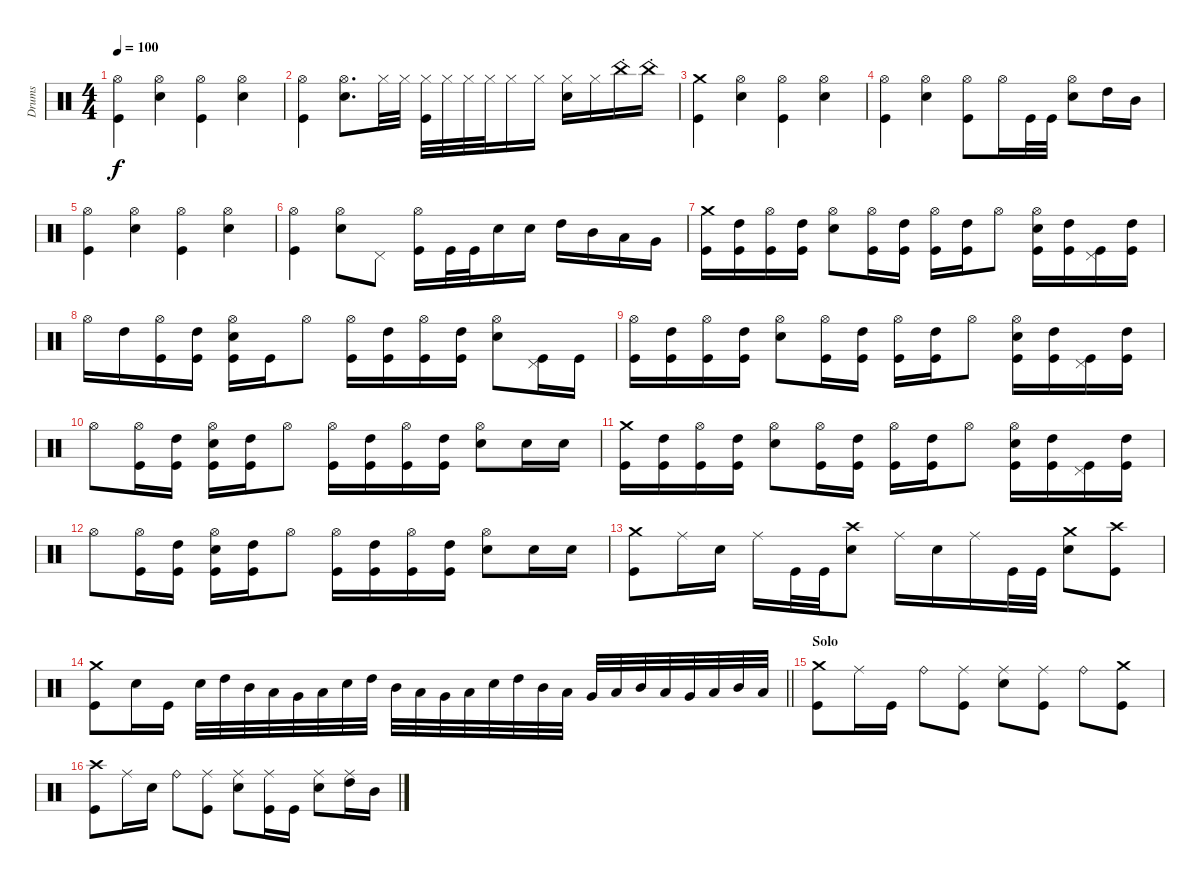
\track ("Drums" "Drums") {instrument percussion}
\staff {score}
\articulation defaults
\ts (4 4)
\tempo 100
\clef neutral
\ks c
("Hi-Hat (open)" "Kick (hit)").4{dy f} ("Hi-Hat (open)" "Electric Snare (hit)").4 ("Hi-Hat (open)" "Kick (hit)").4 ("Hi-Hat (open)" "Electric Snare (hit)").4 |
("Hi-Hat (open)" "Kick (hit)").4 ("Hi-Hat (open)" "Electric Snare (hit)").8{d} "Hi-Hat (closed)".32 "Hi-Hat (closed)".32 ("Hi-Hat (closed)" "Kick (hit)").32 "Hi-Hat (closed)".32 "Hi-Hat (closed)".32 "Hi-Hat (closed)".32 "Hi-Hat (closed)".16 "Hi-Hat (closed)".16 ("Hi-Hat (closed)" "Electric Snare (hit)").16 "Hi-Hat (closed)".16 "China (hit)"{st}.16 "China (hit)"{st}.16 |
("Crash medium (hit)" "Kick (hit)").4 ("Hi-Hat (open)" "Electric Snare (hit)").4 ("Hi-Hat (open)" "Kick (hit)").4 ("Hi-Hat (open)" "Electric Snare (hit)").4 |
("Hi-Hat (open)" "Kick (hit)").4 ("Hi-Hat (open)" "Electric Snare (hit)").4 ("Hi-Hat (open)" "Kick (hit)").8 "Hi-Hat (open)".16 "Kick (hit)".32 "Kick (hit)".32 ("Hi-Hat (open)" "Electric Snare (hit)").8 "High Tom (hit)".16 "Mid Tom (hit)".16 |
("Hi-Hat (open)" "Kick (hit)").4 ("Hi-Hat (open)" "Electric Snare (hit)").4 ("Hi-Hat (open)" "Kick (hit)").4 ("Hi-Hat (open)" "Electric Snare (hit)").4 |
("Hi-Hat (open)" "Kick (hit)").4 ("Hi-Hat (open)" "Electric Snare (hit)").8 "Pedal Hi-Hat (hit)".8 ("Hi-Hat (open)" "Kick (hit)").16 "Kick (hit)".32 "Kick (hit)".32 "Electric Snare (hit)".16 "Electric Snare (hit)".16 "High Tom (hit)".16 "Mid Tom (hit)".16 "Low Tom (hit)".16 "Very Low Tom (hit)".16 |
("Crash medium (hit)" "Kick (hit)").16 ("High Tom (hit)" "Kick (hit)").16 ("Hi-Hat (open)" "Kick (hit)").16 ("High Tom (hit)" "Kick (hit)").16 ("Hi-Hat (open)" "Electric Snare (hit)").8 ("Hi-Hat (open)" "Kick (hit)").16 ("High Tom (hit)" "Kick (hit)").16 ("Hi-Hat (open)" "Kick (hit)").16 ("High Tom (hit)" "Kick (hit)").16 "Hi-Hat (open)".8 ("Hi-Hat (open)" "Electric Snare (hit)" "Kick (hit)").16 ("High Tom (hit)" "Kick (hit)").16 ("Pedal Hi-Hat (hit)" "Kick (hit)").16 ("High Tom (hit)" "Kick (hit)").16 |
"Hi-Hat (open)".16 "High Tom (hit)".16 ("Hi-Hat (open)" "Kick (hit)").16 ("High Tom (hit)" "Kick (hit)").16 ("Hi-Hat (open)" "Electric Snare (hit)" "Kick (hit)").16 "Kick (hit)".16 "Hi-Hat (open)".8 ("Hi-Hat (open)" "Kick (hit)").16 ("High Tom (hit)" "Kick (hit)").16 ("Hi-Hat (open)" "Kick (hit)").16 ("High Tom (hit)" "Kick (hit)").16 ("Hi-Hat (open)" "Electric Snare (hit)").8 ("Pedal Hi-Hat (hit)" "Kick (hit)").16 "Kick (hit)".16 |
("Hi-Hat (open)" "Kick (hit)").16 ("High Tom (hit)" "Kick (hit)").16 ("Hi-Hat (open)" "Kick (hit)").16 ("High Tom (hit)" "Kick (hit)").16 ("Hi-Hat (open)" "Electric Snare (hit)").8 ("Hi-Hat (open)" "Kick (hit)").16 ("High Tom (hit)" "Kick (hit)").16 ("Hi-Hat (open)" "Kick (hit)").16 ("High Tom (hit)" "Kick (hit)").16 "Hi-Hat (open)".8 ("Hi-Hat (open)" "Electric Snare (hit)" "Kick (hit)").16 ("High Tom (hit)" "Kick (hit)").16 ("Pedal Hi-Hat (hit)" "Kick (hit)").16 ("High Tom (hit)" "Kick (hit)").16 |
"Hi-Hat (open)".8 ("Hi-Hat (open)" "Kick (hit)").16 ("High Tom (hit)" "Kick (hit)").16 ("Hi-Hat (open)" "Electric Snare (hit)" "Kick (hit)").16 ("High Tom (hit)" "Kick (hit)").16 "Hi-Hat (open)".8 ("Hi-Hat (open)" "Kick (hit)").16 ("High Tom (hit)" "Kick (hit)").16 ("Hi-Hat (open)" "Kick (hit)").16 ("High Tom (hit)" "Kick (hit)").16 ("Hi-Hat (open)" "Electric Snare (hit)").8 "Electric Snare (hit)".16 "Electric Snare (hit)".16 |
("Crash medium (hit)" "Kick (hit)").16 ("High Tom (hit)" "Kick (hit)").16 ("Hi-Hat (open)" "Kick (hit)").16 ("High Tom (hit)" "Kick (hit)").16 ("Hi-Hat (open)" "Electric Snare (hit)").8 ("Hi-Hat (open)" "Kick (hit)").16 ("High Tom (hit)" "Kick (hit)").16 ("Hi-Hat (open)" "Kick (hit)").16 ("High Tom (hit)" "Kick (hit)").16 "Hi-Hat (open)".8 ("Hi-Hat (open)" "Electric Snare (hit)" "Kick (hit)").16 ("High Tom (hit)" "Kick (hit)").16 ("Pedal Hi-Hat (hit)" "Kick (hit)").16 ("High Tom (hit)" "Kick (hit)").16 |
"Hi-Hat (open)".8 ("Hi-Hat (open)" "Kick (hit)").16 ("High Tom (hit)" "Kick (hit)").16 ("Hi-Hat (open)" "Electric Snare (hit)" "Kick (hit)").16 ("High Tom (hit)" "Kick (hit)").16 "Hi-Hat (open)".8 ("Hi-Hat (open)" "Kick (hit)").16 ("High Tom (hit)" "Kick (hit)").16 ("Hi-Hat (open)" "Kick (hit)").16 ("High Tom (hit)" "Kick (hit)").16 ("Hi-Hat (open)" "Electric Snare (hit)").8 "Electric Snare (hit)".16 "Electric Snare (hit)".16 |
("Crash medium (hit)" "Kick (hit)").8 "Ride (middle)".16 "Electric Snare (hit)".16 "Ride (middle)".16 "Kick (hit)".32 "Kick (hit)".32 ("Crash high (hit)" "Electric Snare (hit)").8 "Ride (middle)".16 "Electric Snare (hit)".16 "Ride (middle)".16 "Kick (hit)".32 "Kick (hit)".32 ("Crash medium (hit)" "Electric Snare (hit)").8 ("Crash high (hit)" "Kick (hit)").8 |
\barLineRight lightlight
("Crash medium (hit)" "Kick (hit)").8 "Electric Snare (hit)".16 "Kick (hit)".16 "Electric Snare (hit)".32 "High Tom (hit)".32 "Mid Tom (hit)".32 "Low Tom (hit)".32 "Very Low Tom (hit)".32 "Low Floor Tom (hit)".32 "Electric Snare (hit)".32 "High Tom (hit)".32 "Mid Tom (hit)".32 "Low Tom (hit)".32 "Very Low Tom (hit)".32 "Low Floor Tom (hit)".32 "Electric Snare (hit)".32 "High Tom (hit)".32 "Mid Tom (hit)".32 "Low Tom (hit)".32 "Very Low Tom (hit)".32 "Low Floor Tom (hit)".32 "Mid Tom (hit)".32 "Low Tom (hit)".32 "Very Low Tom (hit)".32 "Low Floor Tom (hit)".32 "Mid Tom (hit)".32 "Low Tom (hit)".32 |
\section ("" "Solo")
("Crash medium (hit)" "Kick (hit)").8 "Ride (middle)".16 "Kick (hit)".16 "Ride (bell)".8 ("Ride (middle)" "Kick (hit)").8 ("Ride (middle)" "Electric Snare (hit)").8 ("Ride (middle)" "Kick (hit)").8 "Ride (bell)".8 ("Crash medium (hit)" "Kick (hit)").8 |
("Crash high (hit)" "Kick (hit)").8 "Ride (middle)".16 "Electric Snare (hit)".16 "Ride (bell)".8 ("Ride (middle)" "Kick (hit)").8 ("Ride (middle)" "Electric Snare (hit)").8 ("Ride (middle)" "Kick (hit)").16 "Kick (hit)".16 ("Ride (middle)" "Electric Snare (hit)").8 ("Ride (middle)" "High Tom (hit)").16 "Mid Tom (hit)".16
